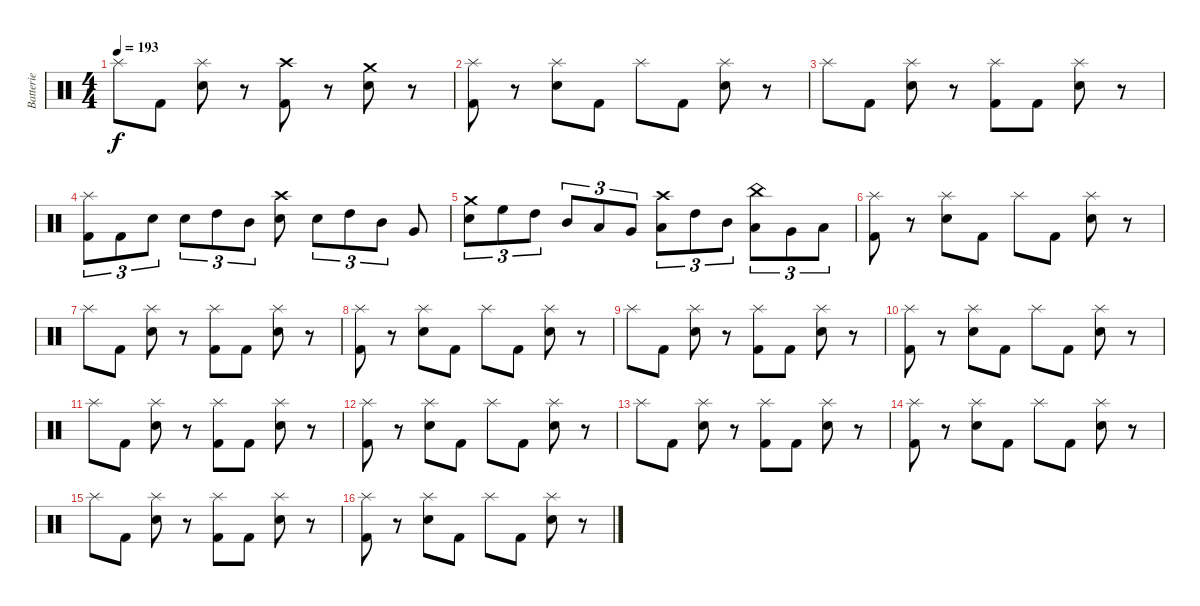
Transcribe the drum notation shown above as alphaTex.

\track ("Batterie" "Batterie") {instrument percussion}
\staff {score}
\articulation defaults
\ts (4 4)
\tempo 193
\clef neutral
\ks c "Splash (hit)".8{dy f} "Kick (hit) 2".8
("Electric Snare (hit)" "Splash (hit)").8 r.8 ("Kick (hit) 2" "Crash high (hit)").8 r.8 ("Electric Snare (hit)" "Crash medium (hit)").8 r.8 |
("Kick (hit) 2" "Splash (hit)").8 r.8 ("Electric Snare (hit)" "Splash (hit)").8 "Kick (hit) 2".8 "Splash (hit)".8 "Kick (hit) 2".8 ("Electric Snare (hit)" "Splash (hit)").8 r.8 |
"Splash (hit)".8 "Kick (hit) 2".8 ("Electric Snare (hit)" "Splash (hit)").8 r.8 ("Kick (hit) 2" "Splash (hit)").8 "Kick (hit) 2".8 ("Electric Snare (hit)" "Splash (hit)").8 r.8 |
("Kick (hit) 2" "Splash (hit)").8{tu (3 2)} "Kick (hit) 2".8{tu (3 2)} "Electric Snare (hit)".8{tu (3 2)} "Electric Snare (hit)".8{tu (3 2)} "High Tom (hit)".8{tu (3 2)} "Mid Tom (hit)".8{tu (3 2)} ("Electric Snare (hit)" "Crash high (hit)").8 "Electric Snare (hit)".8{tu (3 2)} "High Tom (hit)".8{tu (3 2)} "Mid Tom (hit)".8{tu (3 2)} "Very Low Tom (hit)".8 |
("Electric Snare (hit)" "Crash medium (hit)").8{tu (3 2)} "High Floor Tom (hit)".8{tu (3 2)} "High Tom (hit)".8{tu (3 2)} "Mid Tom (hit)".8{tu (3 2)} "Low Tom (hit)".8{tu (3 2)} "Very Low Tom (hit)".8{tu (3 2)} ("Low Floor Tom (hit)" "Crash high (hit)").8{tu (3 2)} "High Tom (hit)".8{tu (3 2)} "Mid Tom (hit)".8{tu (3 2)} ("Low Tom (hit)" "China (hit)").8{tu (3 2)} "Very Low Tom (hit)".8{tu (3 2)} "Low Floor Tom (hit)".8{tu (3 2)} |
("Kick (hit) 2" "Splash (hit)").8 r.8 ("Electric Snare (hit)" "Splash (hit)").8 "Kick (hit) 2".8 "Splash (hit)".8 "Kick (hit) 2".8 ("Electric Snare (hit)" "Splash (hit)").8 r.8 |
"Splash (hit)".8 "Kick (hit) 2".8 ("Electric Snare (hit)" "Splash (hit)").8 r.8 ("Kick (hit) 2" "Splash (hit)").8 "Kick (hit) 2".8 ("Electric Snare (hit)" "Splash (hit)").8 r.8 |
("Kick (hit) 2" "Splash (hit)").8 r.8 ("Electric Snare (hit)" "Splash (hit)").8 "Kick (hit) 2".8 "Splash (hit)".8 "Kick (hit) 2".8 ("Electric Snare (hit)" "Splash (hit)").8 r.8 |
"Splash (hit)".8 "Kick (hit) 2".8 ("Electric Snare (hit)" "Splash (hit)").8 r.8 ("Kick (hit) 2" "Splash (hit)").8 "Kick (hit) 2".8 ("Electric Snare (hit)" "Splash (hit)").8 r.8 |
("Kick (hit) 2" "Splash (hit)").8 r.8 ("Electric Snare (hit)" "Splash (hit)").8 "Kick (hit) 2".8 "Splash (hit)".8 "Kick (hit) 2".8 ("Electric Snare (hit)" "Splash (hit)").8 r.8 |
"Splash (hit)".8 "Kick (hit) 2".8 ("Electric Snare (hit)" "Splash (hit)").8 r.8 ("Kick (hit) 2" "Splash (hit)").8 "Kick (hit) 2".8 ("Electric Snare (hit)" "Splash (hit)").8 r.8 |
("Kick (hit) 2" "Splash (hit)").8 r.8 ("Electric Snare (hit)" "Splash (hit)").8 "Kick (hit) 2".8 "Splash (hit)".8 "Kick (hit) 2".8 ("Electric Snare (hit)" "Splash (hit)").8 r.8 |
"Splash (hit)".8 "Kick (hit) 2".8 ("Electric Snare (hit)" "Splash (hit)").8 r.8 ("Kick (hit) 2" "Splash (hit)").8 "Kick (hit) 2".8 ("Electric Snare (hit)" "Splash (hit)").8 r.8 |
("Kick (hit) 2" "Splash (hit)").8 r.8 ("Electric Snare (hit)" "Splash (hit)").8 "Kick (hit) 2".8 "Splash (hit)".8 "Kick (hit) 2".8 ("Electric Snare (hit)" "Splash (hit)").8 r.8 |
"Splash (hit)".8 "Kick (hit) 2".8 ("Electric Snare (hit)" "Splash (hit)").8 r.8 ("Kick (hit) 2" "Splash (hit)").8 "Kick (hit) 2".8 ("Electric Snare (hit)" "Splash (hit)").8 r.8 |
("Kick (hit) 2" "Splash (hit)").8 r.8 ("Electric Snare (hit)" "Splash (hit)").8 "Kick (hit) 2".8 "Splash (hit)".8 "Kick (hit) 2".8 ("Electric Snare (hit)" "Splash (hit)").8 r.8
